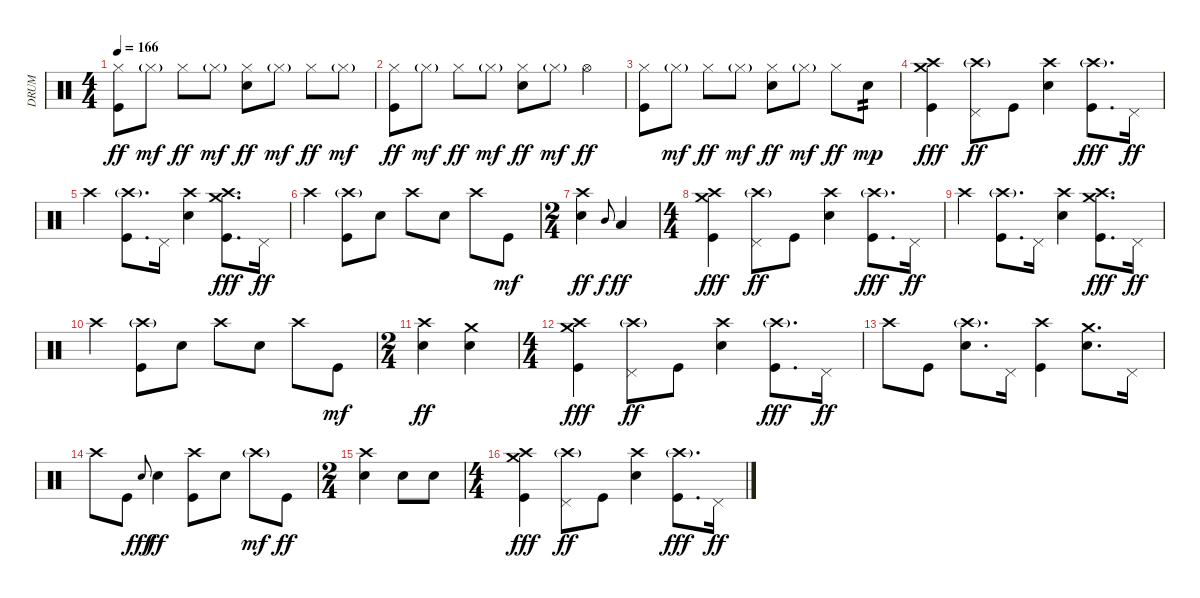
\track ("DRUM" "DRUM") {instrument percussion}
\staff {score}
\articulation defaults
\ts (4 4)
\tempo 166
\clef neutral
\ks c
("Hi-Hat (closed)" "Kick (hit)").8{dy ff} "Hi-Hat (closed)"{g}.8{dy mf} "Hi-Hat (closed)".8{dy ff} "Hi-Hat (closed)"{g}.8{dy mf} ("Hi-Hat (closed)" "Electric Snare (hit)").8{dy ff} "Hi-Hat (closed)"{g}.8{dy mf} "Hi-Hat (closed)".8{dy ff} "Hi-Hat (closed)"{g}.8{dy mf} |
("Hi-Hat (closed)" "Kick (hit)").8{dy ff} "Hi-Hat (closed)"{g}.8{dy mf} "Hi-Hat (closed)".8{dy ff} "Hi-Hat (closed)"{g}.8{dy mf} ("Hi-Hat (closed)" "Electric Snare (hit)").8{dy ff} "Hi-Hat (closed)"{g}.8{dy mf} "Hi-Hat (open)".4{dy ff} |
("Hi-Hat (closed)" "Kick (hit)").8 "Hi-Hat (closed)"{g}.8{dy mf} "Hi-Hat (closed)".8{dy ff} "Hi-Hat (closed)"{g}.8{dy mf} ("Hi-Hat (closed)" "Electric Snare (hit)").8{dy ff} "Hi-Hat (closed)"{g}.8{dy mf} "Hi-Hat (closed)".8{dy ff} "Electric Snare (hit)".8{tp 2 dy mp} |
("Crash high (hit)" "Crash medium (hit)" "Kick (hit)").4{dy fff} ("Crash high (hit)"{g} "Pedal Hi-Hat (hit)").8{dy ff} "Kick (hit)".8 ("Crash high (hit)" "Electric Snare (hit)").4 ("Crash high (hit)"{g} "Kick (hit)").8{d dy fff} "Pedal Hi-Hat (hit)".16{dy ff} |
"Crash high (hit)".4 ("Crash high (hit)"{g} "Kick (hit)").8{d} "Pedal Hi-Hat (hit)".16 ("Crash high (hit)" "Electric Snare (hit)").4 ("Crash high (hit)" "Crash medium (hit)" "Kick (hit)").8{d dy fff} "Pedal Hi-Hat (hit)".16{dy ff} |
"Crash high (hit)".4 ("Crash high (hit)"{g} "Kick (hit)").8 "Electric Snare (hit)".8 "Crash high (hit)".8 "Electric Snare (hit)".8 "Crash high (hit)".8 "Kick (hit)".8{dy mf} |
\ts (2 4)
("Crash high (hit)" "Electric Snare (hit)").4{dy ff} "Mid Tom (hit)".8{gr onbeat dy f} "Low Tom (hit)".4{dy ff} |
\ts (4 4)
("Crash high (hit)" "Crash medium (hit)" "Kick (hit)").4{dy fff} ("Crash high (hit)"{g} "Pedal Hi-Hat (hit)").8{dy ff} "Kick (hit)".8 ("Crash high (hit)" "Electric Snare (hit)").4 ("Crash high (hit)"{g} "Kick (hit)").8{d dy fff} "Pedal Hi-Hat (hit)".16{dy ff} |
"Crash high (hit)".4 ("Crash high (hit)"{g} "Kick (hit)").8{d} "Pedal Hi-Hat (hit)".16 ("Crash high (hit)" "Electric Snare (hit)").4 ("Crash high (hit)" "Crash medium (hit)" "Kick (hit)").8{d dy fff} "Pedal Hi-Hat (hit)".16{dy ff} |
"Crash high (hit)".4 ("Crash high (hit)"{g} "Kick (hit)").8 "Electric Snare (hit)".8 "Crash high (hit)".8 "Electric Snare (hit)".8 "Crash high (hit)".8 "Kick (hit)".8{dy mf} |
\ts (2 4)
("Crash high (hit)" "Electric Snare (hit)").4{dy ff} ("Crash medium (hit)" "Electric Snare (hit)").4 |
\ts (4 4)
("Crash high (hit)" "Crash medium (hit)" "Kick (hit)").4{dy fff} ("Crash high (hit)"{g} "Pedal Hi-Hat (hit)").8{dy ff} "Kick (hit)".8 ("Crash high (hit)" "Electric Snare (hit)").4 ("Crash high (hit)"{g} "Kick (hit)").8{d dy fff} "Pedal Hi-Hat (hit)".16{dy ff} |
"Crash high (hit)".8 "Kick (hit)".8 ("Crash high (hit)"{g} "Electric Snare (hit)").8{d} "Pedal Hi-Hat (hit)".16 ("Crash high (hit)" "Kick (hit)").4 ("Crash medium (hit)" "Electric Snare (hit)").8{d} "Pedal Hi-Hat (hit)".16 |
"Crash high (hit)".8 "Kick (hit)".8 "Snare (hit) 2".8{gr onbeat dy fff} "Electric Snare (hit)".4{dy ff} ("Crash high (hit)" "Kick (hit)").8 "Electric Snare (hit)".8 "Crash high (hit)"{g}.8{dy mf} "Kick (hit)".8{dy ff} |
\ts (2 4)
("Crash high (hit)" "Electric Snare (hit)").4 "Snare (hit) 2".8 "Electric Snare (hit)".8 |
\ts (4 4)
("Crash high (hit)" "Crash medium (hit)" "Kick (hit)").4{dy fff} ("Crash high (hit)"{g} "Pedal Hi-Hat (hit)").8{dy ff} "Kick (hit)".8 ("Crash high (hit)" "Electric Snare (hit)").4 ("Crash high (hit)"{g} "Kick (hit)").8{d dy fff} "Pedal Hi-Hat (hit)".16{dy ff}
